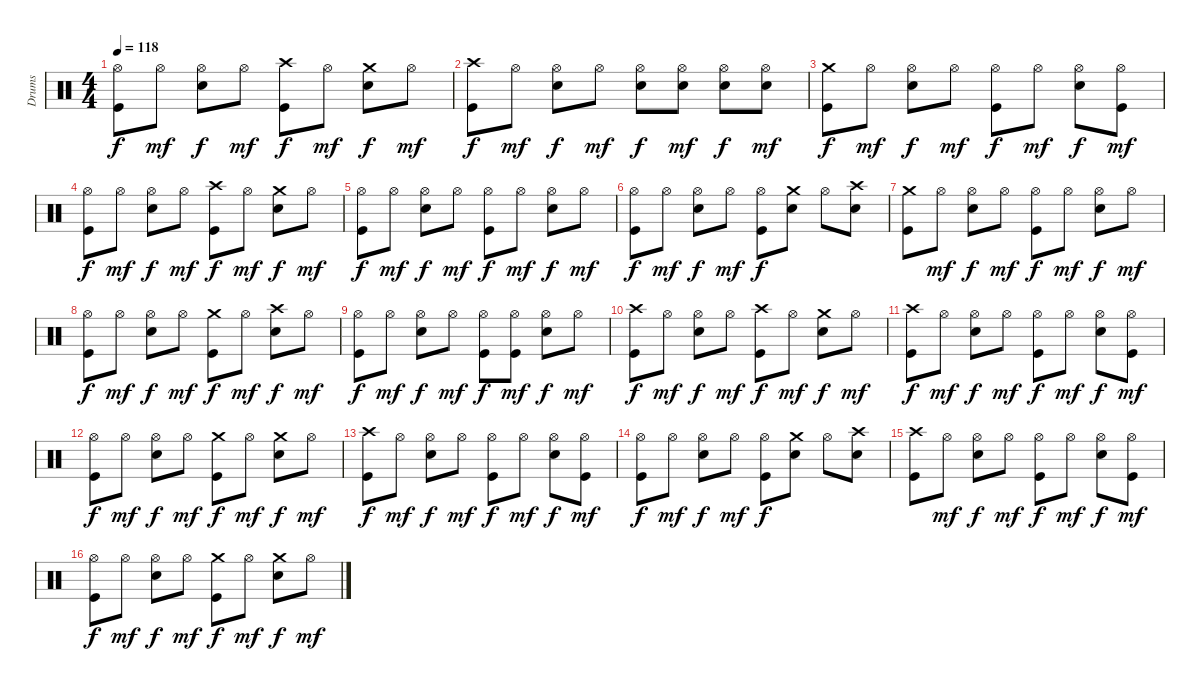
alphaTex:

\track ("Drums" "Drums") {instrument percussion}
\staff {score}
\articulation defaults
\ts (4 4)
\tempo 118
\clef neutral
\ks c
("Hi-Hat (open)" "Kick (hit)").8{dy f} "Hi-Hat (open)".8{dy mf} ("Hi-Hat (open)" "Snare (hit) 2").8{dy f} "Hi-Hat (open)".8{dy mf} ("Kick (hit)" "Crash high (hit)").8{dy f} "Hi-Hat (open)".8{dy mf} ("Snare (hit) 2" "Crash medium (hit)").8{dy f} "Hi-Hat (open)".8{dy mf} |
("Kick (hit)" "Crash high (hit)").8{dy f} "Hi-Hat (open)".8{dy mf} ("Hi-Hat (open)" "Snare (hit) 2").8{dy f} "Hi-Hat (open)".8{dy mf} ("Hi-Hat (open)" "Snare (hit) 2").8{dy f} ("Hi-Hat (open)" "Snare (hit) 2").8{dy mf} ("Hi-Hat (open)" "Snare (hit) 2").8{dy f} ("Hi-Hat (open)" "Snare (hit) 2").8{dy mf} |
("Kick (hit)" "Crash medium (hit)").8{dy f} "Hi-Hat (open)".8{dy mf} ("Hi-Hat (open)" "Snare (hit) 2").8{dy f} "Hi-Hat (open)".8{dy mf} ("Hi-Hat (open)" "Kick (hit)").8{dy f} "Hi-Hat (open)".8{dy mf} ("Hi-Hat (open)" "Snare (hit) 2").8{dy f} ("Hi-Hat (open)" "Kick (hit)").8{dy mf} |
("Hi-Hat (open)" "Kick (hit)").8{dy f} "Hi-Hat (open)".8{dy mf} ("Hi-Hat (open)" "Snare (hit) 2").8{dy f} "Hi-Hat (open)".8{dy mf} ("Kick (hit)" "Crash high (hit)").8{dy f} "Hi-Hat (open)".8{dy mf} ("Snare (hit) 2" "Crash medium (hit)").8{dy f} "Hi-Hat (open)".8{dy mf} |
("Hi-Hat (open)" "Kick (hit)").8{dy f} "Hi-Hat (open)".8{dy mf} ("Hi-Hat (open)" "Snare (hit) 2").8{dy f} "Hi-Hat (open)".8{dy mf} ("Hi-Hat (open)" "Kick (hit)").8{dy f} "Hi-Hat (open)".8{dy mf} ("Hi-Hat (open)" "Snare (hit) 2").8{dy f} "Hi-Hat (open)".8{dy mf} |
("Hi-Hat (open)" "Kick (hit)").8{dy f} "Hi-Hat (open)".8{dy mf} ("Hi-Hat (open)" "Snare (hit) 2").8{dy f} "Hi-Hat (open)".8{dy mf} ("Hi-Hat (open)" "Kick (hit)").8{dy f} ("Snare (hit) 2" "Crash medium (hit)").8 "Hi-Hat (open)".8 ("Snare (hit) 2" "Crash high (hit)").8 |
("Crash medium (hit)" "Kick (hit)").8 "Hi-Hat (open)".8{dy mf} ("Hi-Hat (open)" "Snare (hit) 2").8{dy f} "Hi-Hat (open)".8{dy mf} ("Hi-Hat (open)" "Kick (hit)").8{dy f} "Hi-Hat (open)".8{dy mf} ("Hi-Hat (open)" "Snare (hit) 2").8{dy f} "Hi-Hat (open)".8{dy mf} |
("Hi-Hat (open)" "Kick (hit)").8{dy f} "Hi-Hat (open)".8{dy mf} ("Hi-Hat (open)" "Snare (hit) 2").8{dy f} "Hi-Hat (open)".8{dy mf} ("Kick (hit)" "Crash medium (hit)").8{dy f} "Hi-Hat (open)".8{dy mf} ("Snare (hit) 2" "Crash high (hit)").8{dy f} "Hi-Hat (open)".8{dy mf} |
("Hi-Hat (open)" "Kick (hit)").8{dy f} "Hi-Hat (open)".8{dy mf} ("Hi-Hat (open)" "Snare (hit) 2").8{dy f} "Hi-Hat (open)".8{dy mf} ("Hi-Hat (open)" "Kick (hit)").8{dy f} ("Hi-Hat (open)" "Kick (hit)").8{dy mf} ("Hi-Hat (open)" "Snare (hit) 2").8{dy f} "Hi-Hat (open)".8{dy mf} |
("Crash high (hit)" "Kick (hit)").8{dy f} "Hi-Hat (open)".8{dy mf} ("Hi-Hat (open)" "Snare (hit) 2").8{dy f} "Hi-Hat (open)".8{dy mf} ("Crash high (hit)" "Kick (hit)").8{dy f} "Hi-Hat (open)".8{dy mf} ("Crash medium (hit)" "Snare (hit) 2").8{dy f} "Hi-Hat (open)".8{dy mf} |
("Crash high (hit)" "Kick (hit)").8{dy f} "Hi-Hat (open)".8{dy mf} ("Hi-Hat (open)" "Snare (hit) 2").8{dy f} "Hi-Hat (open)".8{dy mf} ("Hi-Hat (open)" "Kick (hit)").8{dy f} "Hi-Hat (open)".8{dy mf} ("Hi-Hat (open)" "Snare (hit) 2").8{dy f} ("Hi-Hat (open)" "Kick (hit)").8{dy mf} |
("Hi-Hat (open)" "Kick (hit)").8{dy f} "Hi-Hat (open)".8{dy mf} ("Hi-Hat (open)" "Snare (hit) 2").8{dy f} "Hi-Hat (open)".8{dy mf} ("Kick (hit)" "Crash medium (hit)").8{dy f} "Hi-Hat (open)".8{dy mf} ("Snare (hit) 2" "Crash medium (hit)").8{dy f} "Hi-Hat (open)".8{dy mf} |
("Crash high (hit)" "Kick (hit)").8{dy f} "Hi-Hat (open)".8{dy mf} ("Hi-Hat (open)" "Snare (hit) 2").8{dy f} "Hi-Hat (open)".8{dy mf} ("Hi-Hat (open)" "Kick (hit)").8{dy f} "Hi-Hat (open)".8{dy mf} ("Hi-Hat (open)" "Snare (hit) 2").8{dy f} ("Hi-Hat (open)" "Kick (hit)").8{dy mf} |
("Hi-Hat (open)" "Kick (hit)").8{dy f} "Hi-Hat (open)".8{dy mf} ("Hi-Hat (open)" "Snare (hit) 2").8{dy f} "Hi-Hat (open)".8{dy mf} ("Hi-Hat (open)" "Kick (hit)").8{dy f} ("Snare (hit) 2" "Crash medium (hit)").8 "Hi-Hat (open)".8 ("Snare (hit) 2" "Crash high (hit)").8 |
("Crash high (hit)" "Kick (hit)").8 "Hi-Hat (open)".8{dy mf} ("Hi-Hat (open)" "Snare (hit) 2").8{dy f} "Hi-Hat (open)".8{dy mf} ("Hi-Hat (open)" "Kick (hit)").8{dy f} "Hi-Hat (open)".8{dy mf} ("Hi-Hat (open)" "Snare (hit) 2").8{dy f} ("Hi-Hat (open)" "Kick (hit)").8{dy mf} |
("Hi-Hat (open)" "Kick (hit)").8{dy f} "Hi-Hat (open)".8{dy mf} ("Hi-Hat (open)" "Snare (hit) 2").8{dy f} "Hi-Hat (open)".8{dy mf} ("Kick (hit)" "Crash medium (hit)").8{dy f} "Hi-Hat (open)".8{dy mf} ("Snare (hit) 2" "Crash medium (hit)").8{dy f} "Hi-Hat (open)".8{dy mf}
